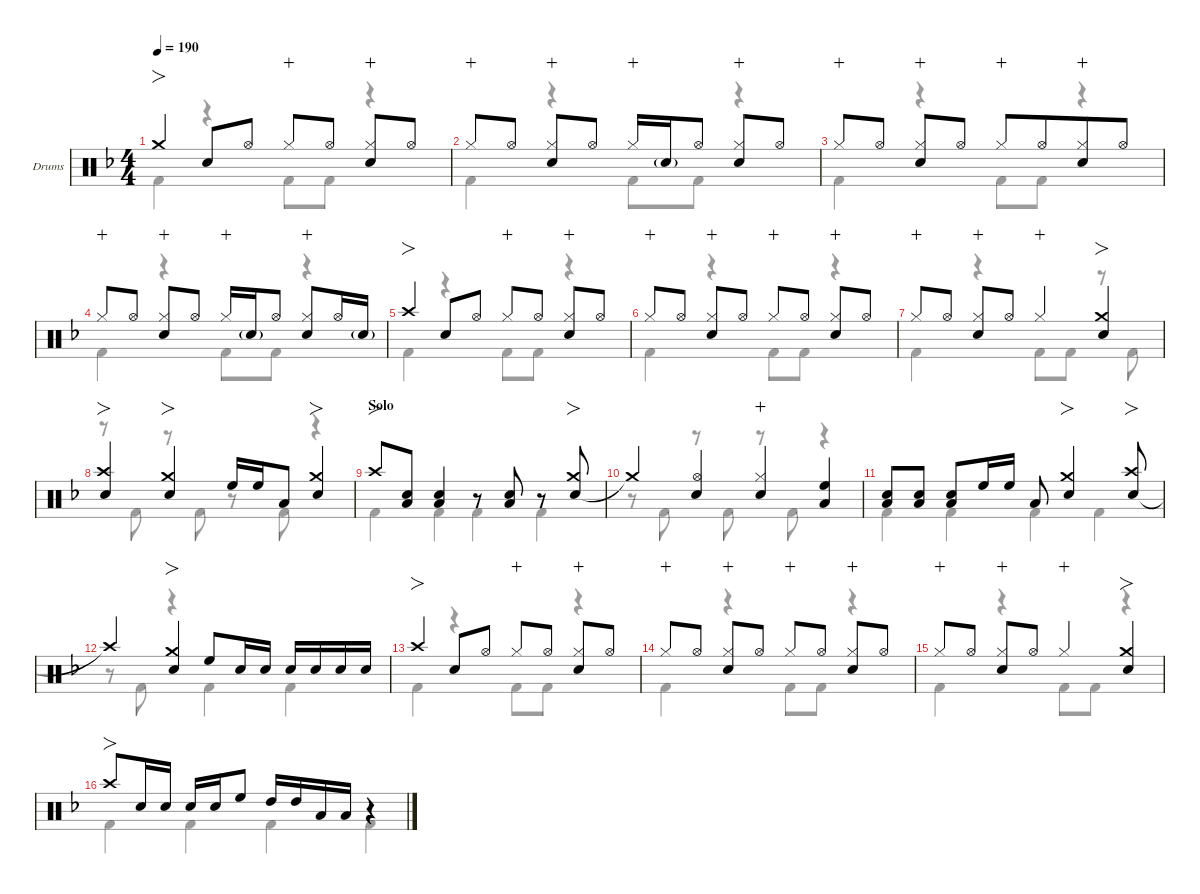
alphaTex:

\defaultSystemsLayout 4
\hideDynamics
\bracketExtendMode nobrackets
\firstSystemTrackNameOrientation horizontal
\track ("Drums" "Drums") {defaultSystemsLayout 4 instrument percussion}
\staff {score}
\articulation defaults
\voice
\ts (4 4)
\tempo 190
\clef neutral
\ks f "Crash medium (hit)"{acc forcenatural}.4{fo dy f} "Snare (hit) 2"{acc forcenatural}.8 "Hi-Hat (open)"{acc forcenatural}.8 "Hi-Hat (closed)"{acc forcenatural}.8{wahc} "Hi-Hat (open)"{acc forcenatural}.8
("Hi-Hat (closed)"{acc forcenatural} "Snare (hit) 2"{acc forcenatural}).8{wahc} "Hi-Hat (open)"{acc forcenatural}.8 |
"Hi-Hat (closed)"{acc forcenatural}.8{wahc} "Hi-Hat (open)"{acc forcenatural}.8 ("Hi-Hat (closed)"{acc forcenatural} "Snare (hit) 2"{acc forcenatural}).8{wahc} "Hi-Hat (open)"{acc forcenatural}.8 "Hi-Hat (closed)"{acc forcenatural}.16{wahc} "Snare (hit) 2"{g acc forcenatural}.16{dy mf} "Hi-Hat (open)"{acc forcenatural}.8{dy f beam split} ("Hi-Hat (closed)"{acc forcenatural} "Snare (hit) 2"{acc forcenatural}).8{wahc} "Hi-Hat (open)"{acc forcenatural}.8 |
"Hi-Hat (closed)"{acc forcenatural}.8{wahc} "Hi-Hat (open)"{acc forcenatural}.8 ("Hi-Hat (closed)"{acc forcenatural} "Snare (hit) 2"{acc forcenatural}).8{wahc} "Hi-Hat (open)"{acc forcenatural}.8 "Hi-Hat (closed)"{acc forcenatural}.8{wahc} "Hi-Hat (open)"{acc forcenatural}.8{beam merge} ("Hi-Hat (closed)"{acc forcenatural} "Snare (hit) 2"{acc forcenatural}).8{wahc} "Hi-Hat (open)"{acc forcenatural}.8 |
"Hi-Hat (closed)"{acc forcenatural}.8{wahc} "Hi-Hat (open)"{acc forcenatural}.8 ("Hi-Hat (closed)"{acc forcenatural} "Snare (hit) 2"{acc forcenatural}).8{wahc} "Hi-Hat (open)"{acc forcenatural}.8 "Hi-Hat (closed)"{acc forcenatural}.16{wahc} "Snare (hit) 2"{g acc forcenatural}.16{dy mf} "Hi-Hat (open)"{acc forcenatural}.8{dy f beam split} ("Hi-Hat (closed)"{acc forcenatural} "Snare (hit) 2"{acc forcenatural}).8{wahc} "Hi-Hat (open)"{acc forcenatural}.16 "Snare (hit) 2"{g acc forcenatural}.16{dy mf} |
"Crash high (hit)"{acc forcenatural}.4{fo dy f} "Snare (hit) 2"{acc forcenatural}.8 "Hi-Hat (open)"{acc forcenatural}.8 "Hi-Hat (closed)"{acc forcenatural}.8{wahc} "Hi-Hat (open)"{acc forcenatural}.8 ("Hi-Hat (closed)"{acc forcenatural} "Snare (hit) 2"{acc forcenatural}).8{wahc} "Hi-Hat (open)"{acc forcenatural}.8 |
"Hi-Hat (closed)"{acc forcenatural}.8{wahc} "Hi-Hat (open)"{acc forcenatural}.8 ("Hi-Hat (closed)"{acc forcenatural} "Snare (hit) 2"{acc forcenatural}).8{wahc} "Hi-Hat (open)"{acc forcenatural}.8 "Hi-Hat (closed)"{acc forcenatural}.8{wahc} "Hi-Hat (open)"{acc forcenatural}.8 ("Hi-Hat (closed)"{acc forcenatural} "Snare (hit) 2"{acc forcenatural}).8{wahc} "Hi-Hat (open)"{acc forcenatural}.8 |
"Hi-Hat (closed)"{acc forcenatural}.8{wahc} "Hi-Hat (open)"{acc forcenatural}.8 ("Hi-Hat (closed)"{acc forcenatural} "Snare (hit) 2"{acc forcenatural}).8{wahc} "Hi-Hat (open)"{acc forcenatural}.8 "Hi-Hat (closed)"{acc forcenatural}.4{wahc} ("Snare (hit) 2"{acc forcenatural} "Crash medium (hit)"{acc forcenatural}).4{fo} |
("Snare (hit) 2"{acc forcenatural} "Crash high (hit)"{acc forcenatural}).4{fo} ("Snare (hit) 2"{acc forcenatural} "Crash medium (hit)"{acc forcenatural}).4{fo} "High Floor Tom (hit)"{acc forcenatural}.16 "High Floor Tom (hit)"{acc forcenatural}.16 "Low Tom (hit)"{acc forcenatural}.8 ("Snare (hit) 2"{acc forcenatural} "Crash medium (hit)"{acc forcenatural}).4{fo} |
\section ("" "Solo")
"Crash high (hit)"{acc forcenatural}.8{fo} ("Snare (hit) 2"{acc forcenatural} "Low Tom (hit)"{acc forcenatural}).8 ("Snare (hit) 2"{acc forcenatural} "Low Tom (hit)"{acc forcenatural}).4 r.8 ("Snare (hit) 2"{acc forcenatural} "Low Tom (hit)"{acc forcenatural}).8 r.8 ("Snare (hit) 2"{acc forcenatural} "Crash medium (hit)"{acc forcenatural}).8{fo} |
"Crash medium (hit)"{t acc forcenatural}.4 ("Snare (hit) 2"{acc forcenatural} "Hi-Hat (open)"{acc forcenatural}).4 ("Snare (hit) 2"{acc forcenatural} "Hi-Hat (closed)"{acc forcenatural}).4{wahc} ("High Floor Tom (hit)"{acc forcenatural} "Low Tom (hit)"{acc forcenatural}).4 |
("Snare (hit) 2"{acc forcenatural} "Low Tom (hit)"{acc forcenatural}).8 ("Snare (hit) 2"{acc forcenatural} "Low Tom (hit)"{acc forcenatural}).8{beam split} ("Snare (hit) 2"{acc forcenatural} "Low Tom (hit)"{acc forcenatural}).8 "High Floor Tom (hit)"{acc forcenatural}.16 "High Floor Tom (hit)"{acc forcenatural}.16 "Low Tom (hit)"{acc forcenatural}.8 ("Snare (hit) 2"{acc forcenatural} "Crash medium (hit)"{acc forcenatural}).4{fo} ("Snare (hit) 2"{acc forcenatural} "Crash high (hit)"{acc forcenatural}).8{fo} |
"Crash high (hit)"{t acc forcenatural}.4 ("Snare (hit) 2"{acc forcenatural} "Crash medium (hit)"{acc forcenatural}).4{fo} "High Floor Tom (hit)"{acc forcenatural}.8{dy mf} "Snare (hit) 2"{acc forcenatural}.16{dy f} "Snare (hit) 2"{acc forcenatural}.16{dy mf beam split} "Snare (hit) 2"{acc forcenatural}.16{dy f} "Snare (hit) 2"{acc forcenatural}.16{dy mf} "Snare (hit) 2"{acc forcenatural}.16{dy f} "Snare (hit) 2"{acc forcenatural}.16{dy mf} |
"Crash high (hit)"{acc forcenatural}.4{fo dy f} "Snare (hit) 2"{acc forcenatural}.8 "Hi-Hat (open)"{acc forcenatural}.8 "Hi-Hat (closed)"{acc forcenatural}.8{wahc} "Hi-Hat (open)"{acc forcenatural}.8 ("Hi-Hat (closed)"{acc forcenatural} "Snare (hit) 2"{acc forcenatural}).8{wahc} "Hi-Hat (open)"{acc forcenatural}.8 |
"Hi-Hat (closed)"{acc forcenatural}.8{wahc} "Hi-Hat (open)"{acc forcenatural}.8 ("Hi-Hat (closed)"{acc forcenatural} "Snare (hit) 2"{acc forcenatural}).8{wahc} "Hi-Hat (open)"{acc forcenatural}.8 "Hi-Hat (closed)"{acc forcenatural}.8{wahc} "Hi-Hat (open)"{acc forcenatural}.8 ("Hi-Hat (closed)"{acc forcenatural} "Snare (hit) 2"{acc forcenatural}).8{wahc} "Hi-Hat (open)"{acc forcenatural}.8 |
"Hi-Hat (closed)"{acc forcenatural}.8{wahc} "Hi-Hat (open)"{acc forcenatural}.8 ("Hi-Hat (closed)"{acc forcenatural} "Snare (hit) 2"{acc forcenatural}).8{wahc} "Hi-Hat (open)"{acc forcenatural}.8 "Hi-Hat (closed)"{acc forcenatural}.4{wahc} ("Snare (hit) 2"{acc forcenatural} "Crash medium (hit)"{acc forcenatural}).4{fo} |
"Crash high (hit)"{acc forcenatural}.8{fo} "Snare (hit) 2"{acc forcenatural}.16 "Snare (hit) 2"{acc forcenatural}.16{dy mf beam split} "Snare (hit) 2"{acc forcenatural}.16{dy f} "Snare (hit) 2"{acc forcenatural}.16{dy mf} "High Floor Tom (hit)"{acc forcenatural}.8{dy f} "High Tom (hit)"{acc forcenatural}.16 "High Tom (hit)"{acc forcenatural}.16 "Low Tom (hit)"{acc forcenatural}.16 "Low Tom (hit)"{acc forcenatural}.16 r.4
\voice
\clef neutral
\ottava regular
\simile none
\ks f "Kick (hit) 2"{acc forcenatural}.4{dy f}
r.4 "Kick (hit) 2"{acc forcenatural}.8 "Kick (hit) 2"{acc forcenatural}.8 r.4 |
"Kick (hit) 2"{acc forcenatural}.4 r.4 "Kick (hit) 2"{acc forcenatural}.8 "Kick (hit) 2"{acc forcenatural}.8 r.4 |
"Kick (hit) 2"{acc forcenatural}.4 r.4 "Kick (hit) 2"{acc forcenatural}.8 "Kick (hit) 2"{acc forcenatural}.8 r.4 |
"Kick (hit) 2"{acc forcenatural}.4 r.4 "Kick (hit) 2"{acc forcenatural}.8 "Kick (hit) 2"{acc forcenatural}.8 r.4 |
"Kick (hit) 2"{acc forcenatural}.4 r.4 "Kick (hit) 2"{acc forcenatural}.8 "Kick (hit) 2"{acc forcenatural}.8 r.4 |
"Kick (hit) 2"{acc forcenatural}.4 r.4 "Kick (hit) 2"{acc forcenatural}.8 "Kick (hit) 2"{acc forcenatural}.8 r.4 |
"Kick (hit) 2"{acc forcenatural}.4 r.4 "Kick (hit) 2"{acc forcenatural}.8 "Kick (hit) 2"{acc forcenatural}.8 r.8 "Kick (hit) 2"{acc forcenatural}.8 |
r.8 "Kick (hit) 2"{acc forcenatural}.8 r.8 "Kick (hit) 2"{acc forcenatural}.8 r.8 "Kick (hit) 2"{acc forcenatural}.8 r.4 |
"Kick (hit) 2"{acc forcenatural}.4 "Kick (hit) 2"{acc forcenatural}.4 "Kick (hit) 2"{acc forcenatural}.4 "Kick (hit) 2"{acc forcenatural}.4 |
r.8 "Kick (hit) 2"{acc forcenatural}.8 r.8 "Kick (hit) 2"{acc forcenatural}.8 r.8 "Kick (hit) 2"{acc forcenatural}.8 r.4 |
"Kick (hit) 2"{acc forcenatural}.4 "Kick (hit) 2"{acc forcenatural}.4 "Kick (hit) 2"{acc forcenatural}.4 "Kick (hit) 2"{acc forcenatural}.4 |
r.8 "Kick (hit) 2"{acc forcenatural}.8 r.4 "Kick (hit) 2"{acc forcenatural}.4 "Kick (hit) 2"{acc forcenatural}.4 |
"Kick (hit) 2"{acc forcenatural}.4 r.4 "Kick (hit) 2"{acc forcenatural}.8 "Kick (hit) 2"{acc forcenatural}.8 r.4 |
"Kick (hit) 2"{acc forcenatural}.4 r.4 "Kick (hit) 2"{acc forcenatural}.8 "Kick (hit) 2"{acc forcenatural}.8 r.4 |
"Kick (hit) 2"{acc forcenatural}.4 r.4 "Kick (hit) 2"{acc forcenatural}.8 "Kick (hit) 2"{acc forcenatural}.8 r.4 |
"Kick (hit) 2"{acc forcenatural}.4 "Kick (hit) 2"{acc forcenatural}.4 "Kick (hit) 2"{acc forcenatural}.4 "Kick (hit) 2"{acc forcenatural}.4
